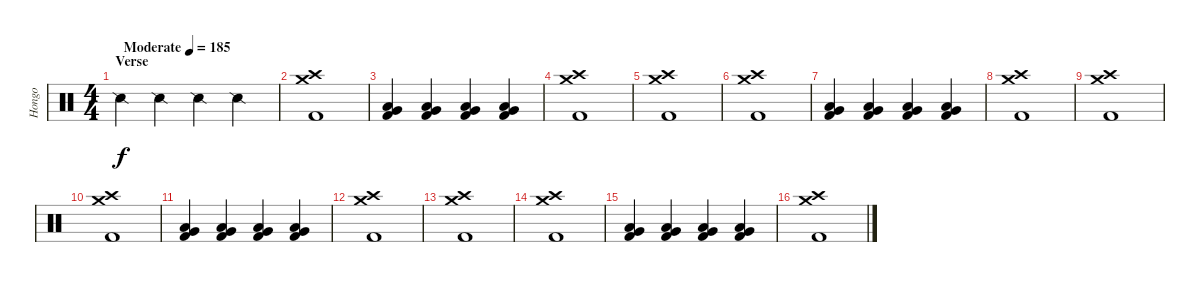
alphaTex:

\track ("Hongo" "Hongo") {instrument percussion}
\staff {score}
\articulation defaults
\ts (4 4)
\section ("" "Verse")
\tempo (185 "Moderate")
\clef neutral
\ks c "Snare (side stick) 2".4{dy f} "Snare (side stick) 2".4 "Snare (side stick) 2".4 "Snare (side stick) 2".4
|
("Crash high (hit)" "Crash medium (hit)" "Kick (hit) 2").1 |
("Low Tom (hit)" "Very Low Tom (hit)" "Kick (hit) 2").4 ("Low Tom (hit)" "Very Low Tom (hit)" "Kick (hit) 2").4 ("Low Tom (hit)" "Very Low Tom (hit)" "Kick (hit) 2").4 ("Low Tom (hit)" "Very Low Tom (hit)" "Kick (hit) 2").4 |
("Crash high (hit)" "Crash medium (hit)" "Kick (hit) 2").1 |
("Crash high (hit)" "Crash medium (hit)" "Kick (hit) 2").1 |
("Crash high (hit)" "Crash medium (hit)" "Kick (hit) 2").1 |
("Low Tom (hit)" "Very Low Tom (hit)" "Kick (hit) 2").4 ("Low Tom (hit)" "Very Low Tom (hit)" "Kick (hit) 2").4 ("Low Tom (hit)" "Very Low Tom (hit)" "Kick (hit) 2").4 ("Low Tom (hit)" "Very Low Tom (hit)" "Kick (hit) 2").4 |
("Crash high (hit)" "Crash medium (hit)" "Kick (hit) 2").1 |
("Crash high (hit)" "Crash medium (hit)" "Kick (hit) 2").1 |
("Crash high (hit)" "Crash medium (hit)" "Kick (hit) 2").1 |
("Low Tom (hit)" "Very Low Tom (hit)" "Kick (hit) 2").4 ("Low Tom (hit)" "Very Low Tom (hit)" "Kick (hit) 2").4 ("Low Tom (hit)" "Very Low Tom (hit)" "Kick (hit) 2").4 ("Low Tom (hit)" "Very Low Tom (hit)" "Kick (hit) 2").4 |
("Crash high (hit)" "Crash medium (hit)" "Kick (hit) 2").1 |
("Crash high (hit)" "Crash medium (hit)" "Kick (hit) 2").1 |
("Crash high (hit)" "Crash medium (hit)" "Kick (hit) 2").1 |
("Low Tom (hit)" "Very Low Tom (hit)" "Kick (hit) 2").4 ("Low Tom (hit)" "Very Low Tom (hit)" "Kick (hit) 2").4 ("Low Tom (hit)" "Very Low Tom (hit)" "Kick (hit) 2").4 ("Low Tom (hit)" "Very Low Tom (hit)" "Kick (hit) 2").4 |
("Crash high (hit)" "Crash medium (hit)" "Kick (hit) 2").1
